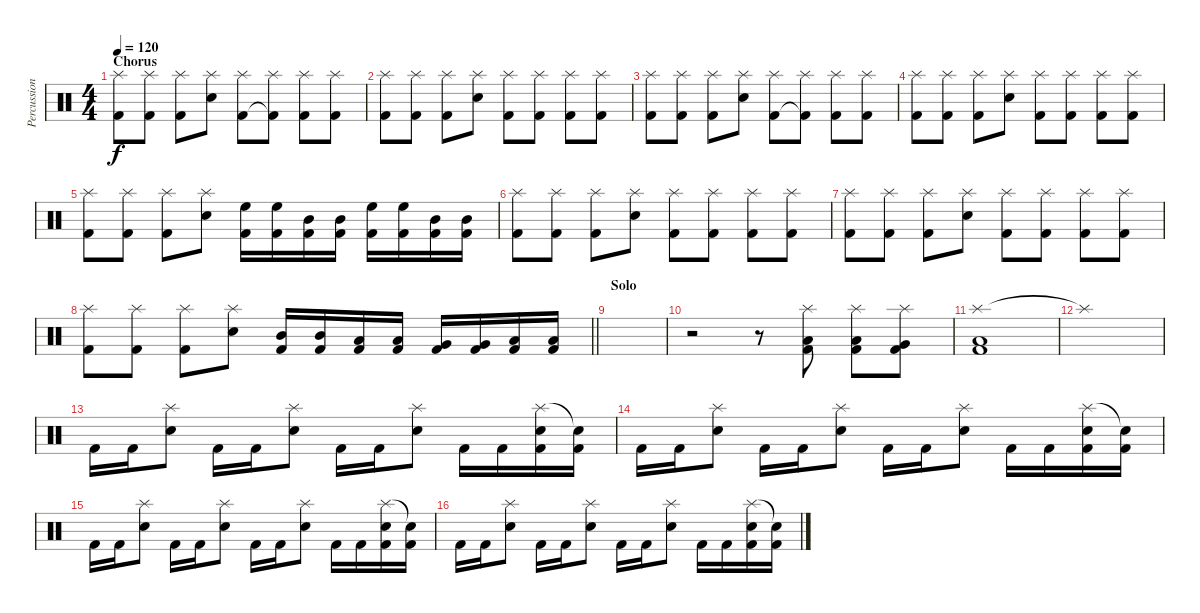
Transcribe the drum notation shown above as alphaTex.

\track ("Percussion" "Percussion") {instrument percussion}
\staff {score}
\articulation defaults
\ts (4 4)
\section ("" "Chorus")
\tempo 120
\clef neutral
\ks c
("Splash (hit)" "Kick (hit) 2").8{dy f} ("Splash (hit)" "Kick (hit) 2").8 ("Splash (hit)" "Kick (hit) 2").8 ("Splash (hit)" "Electric Snare (hit)").8 ("Splash (hit)" "Kick (hit) 2").8 ("Splash (hit)" "Kick (hit) 2"{t}).8 ("Splash (hit)" "Kick (hit) 2").8 ("Splash (hit)" "Kick (hit) 2").8 |
("Splash (hit)" "Kick (hit) 2").8 ("Splash (hit)" "Kick (hit) 2").8 ("Splash (hit)" "Kick (hit) 2").8 ("Splash (hit)" "Electric Snare (hit)").8 ("Splash (hit)" "Kick (hit) 2").8 ("Splash (hit)" "Kick (hit) 2").8 ("Splash (hit)" "Kick (hit) 2").8 ("Splash (hit)" "Kick (hit) 2").8 |
("Splash (hit)" "Kick (hit) 2").8 ("Splash (hit)" "Kick (hit) 2").8 ("Splash (hit)" "Kick (hit) 2").8 ("Splash (hit)" "Electric Snare (hit)").8 ("Splash (hit)" "Kick (hit) 2").8 ("Splash (hit)" "Kick (hit) 2"{t}).8 ("Splash (hit)" "Kick (hit) 2").8 ("Splash (hit)" "Kick (hit) 2").8 |
("Splash (hit)" "Kick (hit) 2").8 ("Splash (hit)" "Kick (hit) 2").8 ("Splash (hit)" "Kick (hit) 2").8 ("Splash (hit)" "Electric Snare (hit)").8 ("Splash (hit)" "Kick (hit) 2").8 ("Splash (hit)" "Kick (hit) 2").8 ("Splash (hit)" "Kick (hit) 2").8 ("Splash (hit)" "Kick (hit) 2").8 |
("Splash (hit)" "Kick (hit) 2").8 ("Splash (hit)" "Kick (hit) 2").8 ("Splash (hit)" "Kick (hit) 2").8 ("Splash (hit)" "Electric Snare (hit)").8 ("High Floor Tom (hit)" "Kick (hit) 2").16 ("High Floor Tom (hit)" "Kick (hit) 2").16 ("Mid Tom (hit)" "Kick (hit) 2").16 ("Mid Tom (hit)" "Kick (hit) 2").16 ("High Floor Tom (hit)" "Kick (hit) 2").16 ("High Floor Tom (hit)" "Kick (hit) 2").16 ("Mid Tom (hit)" "Kick (hit) 2").16 ("Mid Tom (hit)" "Kick (hit) 2").16 |
("Splash (hit)" "Kick (hit) 2").8 ("Splash (hit)" "Kick (hit) 2").8 ("Splash (hit)" "Kick (hit) 2").8 ("Splash (hit)" "Electric Snare (hit)").8 ("Splash (hit)" "Kick (hit) 2").8 ("Splash (hit)" "Kick (hit) 2").8 ("Splash (hit)" "Kick (hit) 2").8 ("Splash (hit)" "Kick (hit) 2").8 |
("Splash (hit)" "Kick (hit) 2").8 ("Splash (hit)" "Kick (hit) 2").8 ("Splash (hit)" "Kick (hit) 2").8 ("Splash (hit)" "Electric Snare (hit)").8 ("Splash (hit)" "Kick (hit) 2").8 ("Splash (hit)" "Kick (hit) 2").8 ("Splash (hit)" "Kick (hit) 2").8 ("Splash (hit)" "Kick (hit) 2").8 |
\barLineRight lightlight
("Splash (hit)" "Kick (hit) 2").8 ("Splash (hit)" "Kick (hit) 2").8 ("Splash (hit)" "Kick (hit) 2").8 ("Splash (hit)" "Electric Snare (hit)").8 ("Mid Tom (hit)" "Kick (hit) 2").16 ("Mid Tom (hit)" "Kick (hit) 2").16 ("Low Tom (hit)" "Kick (hit) 2").16 ("Low Tom (hit)" "Kick (hit) 2").16 ("Very Low Tom (hit)" "Kick (hit) 2").16 ("Very Low Tom (hit)" "Kick (hit) 2").16 ("Low Floor Tom (hit)" "Kick (hit) 2").16 ("Low Floor Tom (hit)" "Kick (hit) 2").16 |
\section ("" "Solo")
|
r.2 r.8 ("Splash (hit)" "Low Tom (hit)" "Kick (hit) 2").8 ("Splash (hit)" "Low Tom (hit)" "Kick (hit) 2").8 ("Splash (hit)" "Very Low Tom (hit)" "Kick (hit) 2").8 |
("Splash (hit)" "Low Tom (hit)" "Kick (hit) 2").1 |
"Splash (hit)"{t}.1 |
"Kick (hit) 2".16 "Kick (hit) 2".16 ("Splash (hit)" "Electric Snare (hit)").8 "Kick (hit) 2".16 "Kick (hit) 2".16 ("Splash (hit)" "Electric Snare (hit)").8 "Kick (hit) 2".16 "Kick (hit) 2".16 ("Splash (hit)" "Electric Snare (hit)").8 "Kick (hit) 2".16 "Kick (hit) 2".16 ("Splash (hit)" "Electric Snare (hit)" "Kick (hit) 2").16 ("Electric Snare (hit)"{t} "Kick (hit) 2").16 |
"Kick (hit) 2".16 "Kick (hit) 2".16 ("Splash (hit)" "Electric Snare (hit)").8 "Kick (hit) 2".16 "Kick (hit) 2".16 ("Splash (hit)" "Electric Snare (hit)").8 "Kick (hit) 2".16 "Kick (hit) 2".16 ("Splash (hit)" "Electric Snare (hit)").8 "Kick (hit) 2".16 "Kick (hit) 2".16 ("Splash (hit)" "Electric Snare (hit)" "Kick (hit) 2").16 ("Electric Snare (hit)"{t} "Kick (hit) 2").16 |
"Kick (hit) 2".16 "Kick (hit) 2".16 ("Splash (hit)" "Electric Snare (hit)").8 "Kick (hit) 2".16 "Kick (hit) 2".16 ("Splash (hit)" "Electric Snare (hit)").8 "Kick (hit) 2".16 "Kick (hit) 2".16 ("Splash (hit)" "Electric Snare (hit)").8 "Kick (hit) 2".16 "Kick (hit) 2".16 ("Splash (hit)" "Electric Snare (hit)" "Kick (hit) 2").16 ("Electric Snare (hit)"{t} "Kick (hit) 2").16 |
"Kick (hit) 2".16 "Kick (hit) 2".16 ("Splash (hit)" "Electric Snare (hit)").8 "Kick (hit) 2".16 "Kick (hit) 2".16 ("Splash (hit)" "Electric Snare (hit)").8 "Kick (hit) 2".16 "Kick (hit) 2".16 ("Splash (hit)" "Electric Snare (hit)").8 "Kick (hit) 2".16 "Kick (hit) 2".16 ("Splash (hit)" "Electric Snare (hit)" "Kick (hit) 2").16 ("Electric Snare (hit)"{t} "Kick (hit) 2").16
